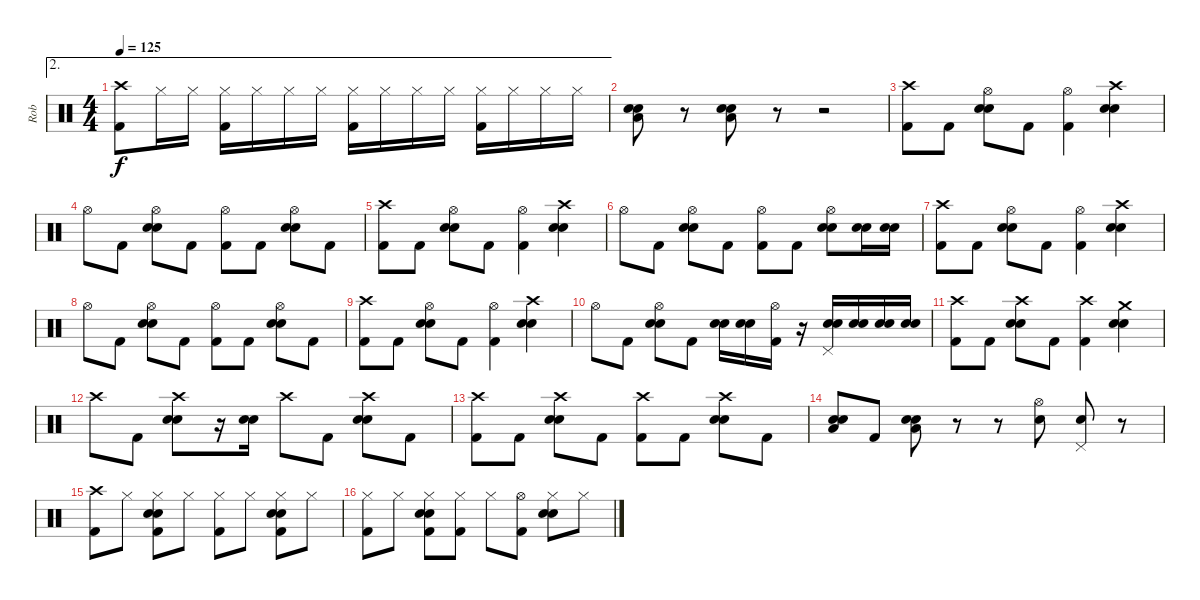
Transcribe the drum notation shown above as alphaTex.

\track ("Rob" "Rob") {instrument percussion}
\staff {score}
\articulation defaults
\ae 2
\ts (4 4)
\tempo 125
\clef neutral
\ks c
("Crash high (hit)" "Kick (hit) 2").8{dy f} "Hi-Hat (closed)".16 "Hi-Hat (closed)".16 ("Hi-Hat (closed)" "Kick (hit) 2").16 "Hi-Hat (closed)".16 "Hi-Hat (closed)".16 "Hi-Hat (closed)".16 ("Hi-Hat (closed)" "Kick (hit) 2").16 "Hi-Hat (closed)".16 "Hi-Hat (closed)".16 "Hi-Hat (closed)".16 ("Hi-Hat (closed)" "Kick (hit) 2").16 "Hi-Hat (closed)".16 "Hi-Hat (closed)".16 "Hi-Hat (closed)".16 |
("Low Floor Tom (hit)" "Electric Snare (hit)" "Snare (hit) 2").8 r.8 ("Low Floor Tom (hit)" "Electric Snare (hit)" "Snare (hit) 2").8 r.8 r.2 |
("Crash high (hit)" "Kick (hit) 2").8 "Kick (hit) 2".8 ("Hi-Hat (open)" "Electric Snare (hit)" "Snare (hit) 2").8 "Kick (hit) 2".8 ("Hi-Hat (open)" "Kick (hit) 2").4 ("Crash high (hit)" "Electric Snare (hit)" "Snare (hit) 2").4 |
"Hi-Hat (open)".8 "Kick (hit) 2".8 ("Hi-Hat (open)" "Electric Snare (hit)" "Snare (hit) 2").8 "Kick (hit) 2".8 ("Hi-Hat (open)" "Kick (hit) 2").8 "Kick (hit) 2".8 ("Hi-Hat (open)" "Electric Snare (hit)" "Snare (hit) 2").8 "Kick (hit) 2".8 |
("Crash high (hit)" "Kick (hit) 2").8 "Kick (hit) 2".8 ("Hi-Hat (open)" "Electric Snare (hit)" "Snare (hit) 2").8 "Kick (hit) 2".8 ("Hi-Hat (open)" "Kick (hit) 2").4 ("Crash high (hit)" "Electric Snare (hit)" "Snare (hit) 2").4 |
"Hi-Hat (open)".8 "Kick (hit) 2".8 ("Hi-Hat (open)" "Electric Snare (hit)" "Snare (hit) 2").8 "Kick (hit) 2".8 ("Hi-Hat (open)" "Kick (hit) 2").8 "Kick (hit) 2".8 ("Hi-Hat (open)" "Electric Snare (hit)" "Snare (hit) 2").8 ("Electric Snare (hit)" "Snare (hit) 2").16 ("Electric Snare (hit)" "Snare (hit) 2").16 |
("Crash high (hit)" "Kick (hit) 2").8 "Kick (hit) 2".8 ("Hi-Hat (open)" "Electric Snare (hit)" "Snare (hit) 2").8 "Kick (hit) 2".8 ("Hi-Hat (open)" "Kick (hit) 2").4 ("Crash high (hit)" "Electric Snare (hit)" "Snare (hit) 2").4 |
"Hi-Hat (open)".8 "Kick (hit) 2".8 ("Hi-Hat (open)" "Electric Snare (hit)" "Snare (hit) 2").8 "Kick (hit) 2".8 ("Hi-Hat (open)" "Kick (hit) 2").8 "Kick (hit) 2".8 ("Hi-Hat (open)" "Electric Snare (hit)" "Snare (hit) 2").8 "Kick (hit) 2".8 |
("Crash high (hit)" "Kick (hit) 2").8 "Kick (hit) 2".8 ("Hi-Hat (open)" "Electric Snare (hit)" "Snare (hit) 2").8 "Kick (hit) 2".8 ("Hi-Hat (open)" "Kick (hit) 2").4 ("Crash high (hit)" "Electric Snare (hit)" "Snare (hit) 2").4 |
"Hi-Hat (open)".8 "Kick (hit) 2".8 ("Hi-Hat (open)" "Electric Snare (hit)" "Snare (hit) 2").8 "Kick (hit) 2".8 ("Electric Snare (hit)" "Snare (hit) 2").16 ("Electric Snare (hit)" "Snare (hit) 2").16 ("Hi-Hat (open)" "Kick (hit) 2").16 r.16 ("Pedal Hi-Hat (hit)" "Electric Snare (hit)" "Snare (hit) 2").16 ("Electric Snare (hit)" "Snare (hit) 2").16 ("Electric Snare (hit)" "Snare (hit) 2").16 ("Electric Snare (hit)" "Snare (hit) 2").16 |
("Crash high (hit)" "Kick (hit) 2").8 "Kick (hit) 2".8 ("Crash high (hit)" "Electric Snare (hit)" "Snare (hit) 2").8 "Kick (hit) 2".8 ("Crash high (hit)" "Kick (hit) 2").4 ("Crash medium (hit)" "Electric Snare (hit)" "Snare (hit) 2").4 |
"Crash high (hit)".8 "Kick (hit) 2".8 ("Crash high (hit)" "Electric Snare (hit)" "Snare (hit) 2").8 r.16 ("Electric Snare (hit)" "Snare (hit) 2").16 "Crash high (hit)".8 "Kick (hit) 2".8 ("Crash high (hit)" "Electric Snare (hit)" "Snare (hit) 2").8 "Kick (hit) 2".8 |
("Crash high (hit)" "Kick (hit) 2").8 "Kick (hit) 2".8 ("Crash high (hit)" "Electric Snare (hit)" "Snare (hit) 2").8 "Kick (hit) 2".8 ("Crash high (hit)" "Kick (hit) 2").8 "Kick (hit) 2".8 ("Crash high (hit)" "Electric Snare (hit)" "Snare (hit) 2").8 "Kick (hit) 2".8 |
("Low Floor Tom (hit)" "Electric Snare (hit)" "Snare (hit) 2").8 "Kick (hit) 2".8 ("Low Floor Tom (hit)" "Electric Snare (hit)" "Snare (hit) 2").8 r.8 r.8 ("Hi-Hat (open)" "Hand Clap (hit)").8 ("Pedal Hi-Hat (hit)" "Hand Clap (hit)").8 r.8 |
("Crash high (hit)" "Kick (hit) 2").8 "Hi-Hat (closed)".8 ("Hi-Hat (closed)" "Electric Snare (hit)" "Snare (hit) 2" "Kick (hit) 2").8 "Hi-Hat (closed)".8 ("Hi-Hat (closed)" "Kick (hit) 2").8 "Hi-Hat (closed)".8 ("Hi-Hat (closed)" "Electric Snare (hit)" "Snare (hit) 2" "Kick (hit) 2").8 "Hi-Hat (closed)".8 |
("Hi-Hat (closed)" "Kick (hit) 2").8 "Hi-Hat (closed)".8 ("Hi-Hat (closed)" "Electric Snare (hit)" "Snare (hit) 2" "Kick (hit) 2").8 ("Hi-Hat (closed)" "Kick (hit) 2").8 "Hi-Hat (closed)".8 ("Hi-Hat (open)" "Kick (hit) 2").8 ("Hi-Hat (closed)" "Electric Snare (hit)" "Snare (hit) 2").8 "Hi-Hat (closed)".8
